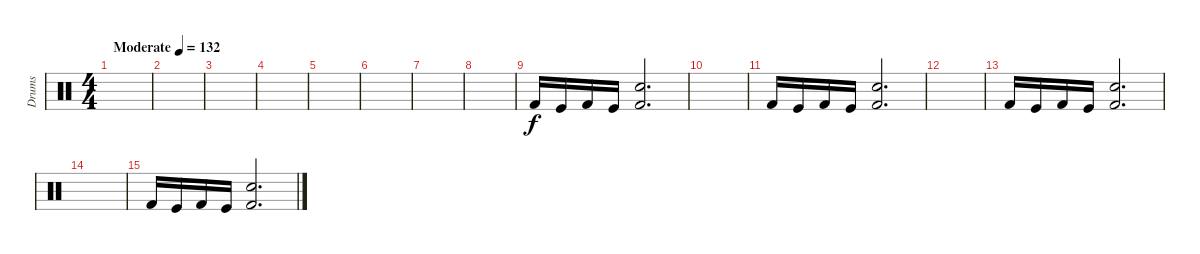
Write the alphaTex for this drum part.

\track ("Drums" "Drums") {instrument percussion}
\staff {score}
\articulation defaults
\ts (4 4)
\tempo (132 "Moderate")
\clef neutral
\ks c
|
|
|
|
|
|
|
|
"Kick (hit) 2".16 "Kick (hit)".16 "Kick (hit) 2".16 "Kick (hit)".16 ("Kick (hit) 2" "Snare (hit) 2").2{d} |
|
"Kick (hit) 2".16 "Kick (hit)".16 "Kick (hit) 2".16 "Kick (hit)".16 ("Kick (hit) 2" "Snare (hit) 2").2{d} |
|
"Kick (hit) 2".16 "Kick (hit)".16 "Kick (hit) 2".16 "Kick (hit)".16 ("Kick (hit) 2" "Snare (hit) 2").2{d} |
|
"Kick (hit) 2".16 "Kick (hit)".16 "Kick (hit) 2".16 "Kick (hit)".16 ("Kick (hit) 2" "Snare (hit) 2").2{d}
